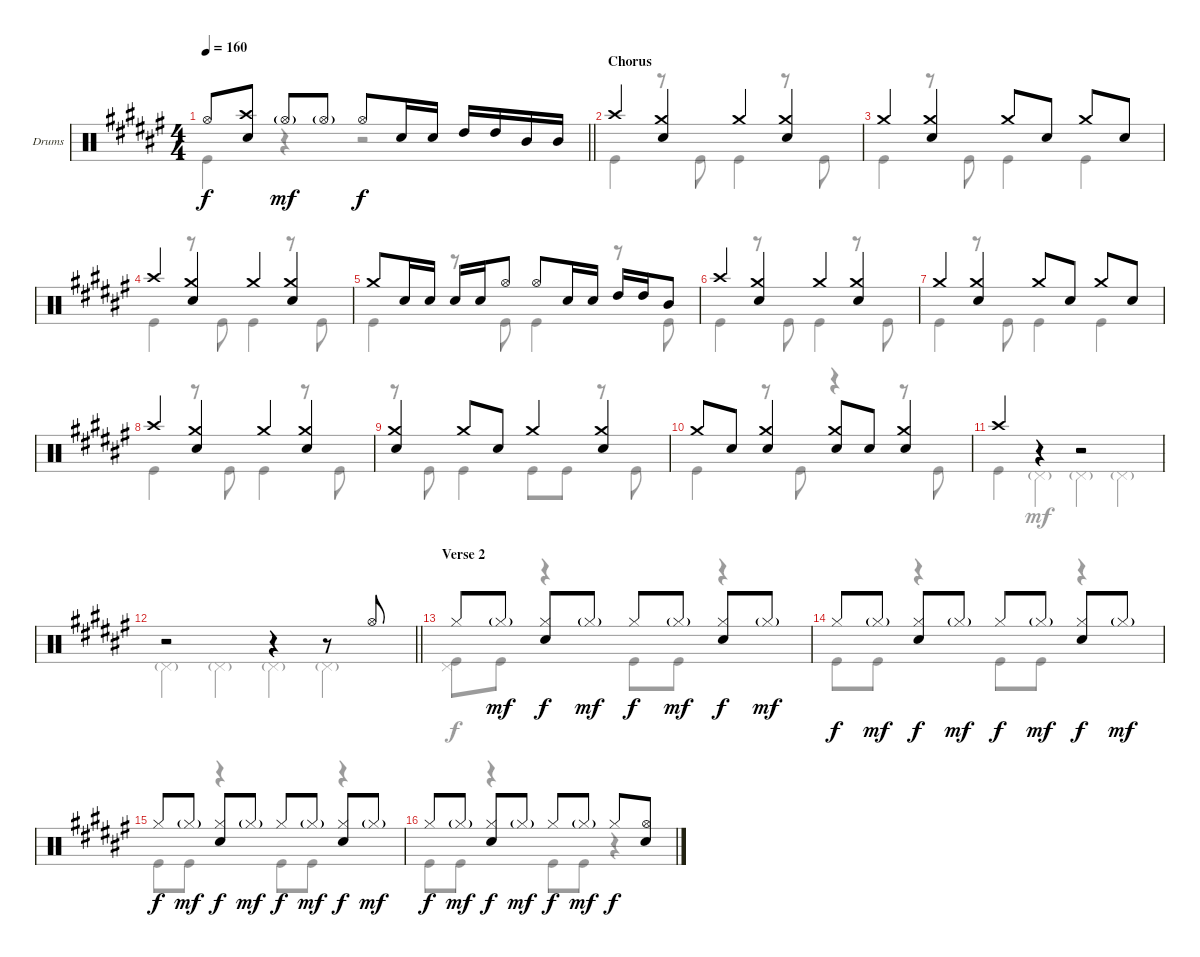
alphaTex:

\bracketExtendMode groupsimilarinstruments
\firstSystemTrackNameOrientation horizontal
\otherSystemsTrackNameOrientation horizontal
\track ("Drumkit" "Drums") {instrument percussion}
\staff {score}
\articulation defaults
\voice
\ts (4 4)
\tempo 160
\clef neutral
\barLineRight lightlight
\ks d#minor "Hi-Hat (open)".8{dy f}
("Crash high (hit)" "Snare (hit) 2").8 "Hi-Hat (open)"{g}.8{dy mf} "Hi-Hat (open)"{g}.8 "Hi-Hat (open)".8{dy f} "Snare (hit) 2".16 "Snare (hit) 2".16 "High Tom (hit)".16 "High Tom (hit)".16 "Mid Tom (hit)".16 "Mid Tom (hit)".16 |
\section ("" "Chorus")
"Crash high (hit)".4 ("Crash medium (hit)" "Snare (hit) 2").4 "Crash medium (hit)".4 ("Crash medium (hit)" "Snare (hit) 2").4 |
"Crash medium (hit)".4 ("Crash medium (hit)" "Snare (hit) 2").4 "Crash medium (hit)".8 "Snare (hit) 2".8 "Crash medium (hit)".8 "Snare (hit) 2".8 |
"Crash high (hit)".4 ("Crash medium (hit)" "Snare (hit) 2").4 "Crash medium (hit)".4 ("Crash medium (hit)" "Snare (hit) 2").4 |
"Crash medium (hit)".8 "Snare (hit) 2".16 "Snare (hit) 2".16 "Snare (hit) 2".16 "Snare (hit) 2".16 "Hi-Hat (open)".8 "Hi-Hat (open)".8 "Snare (hit) 2".16 "Snare (hit) 2".16 "High Tom (hit)".16 "High Tom (hit)".16 "Mid Tom (hit)".8 |
"Crash high (hit)".4 ("Crash medium (hit)" "Snare (hit) 2").4 "Crash medium (hit)".4 ("Crash medium (hit)" "Snare (hit) 2").4 |
"Crash medium (hit)".4 ("Crash medium (hit)" "Snare (hit) 2").4 "Crash medium (hit)".8 "Snare (hit) 2".8 "Crash medium (hit)".8 "Snare (hit) 2".8 |
"Crash high (hit)".4 ("Crash medium (hit)" "Snare (hit) 2").4 "Crash medium (hit)".4 ("Crash medium (hit)" "Snare (hit) 2").4 |
("Crash medium (hit)" "Snare (hit) 2").4 "Crash medium (hit)".8 "Snare (hit) 2".8 "Crash medium (hit)".4 ("Crash medium (hit)" "Snare (hit) 2").4 |
"Crash medium (hit)".8 "Snare (hit) 2".8 ("Crash medium (hit)" "Snare (hit) 2").4 ("Crash medium (hit)" "Snare (hit) 2").8 "Snare (hit) 2".8 ("Crash medium (hit)" "Snare (hit) 2").4 |
"Crash high (hit)".4 r.4 r.2 |
\barLineRight lightlight
r.2 r.4 r.8 "Hi-Hat (open)".8 |
\section ("" "Verse 2")
"Hi-Hat (closed)".8 "Hi-Hat (closed)"{g}.8{dy mf} ("Hi-Hat (closed)" "Snare (hit) 2").8{dy f} "Hi-Hat (closed)"{g}.8{dy mf} "Hi-Hat (closed)".8{dy f} "Hi-Hat (closed)"{g}.8{dy mf} ("Hi-Hat (closed)" "Snare (hit) 2").8{dy f} "Hi-Hat (closed)"{g}.8{dy mf} |
"Hi-Hat (closed)".8{dy f} "Hi-Hat (closed)"{g}.8{dy mf} ("Hi-Hat (closed)" "Snare (hit) 2").8{dy f} "Hi-Hat (closed)"{g}.8{dy mf} "Hi-Hat (closed)".8{dy f} "Hi-Hat (closed)"{g}.8{dy mf} ("Hi-Hat (closed)" "Snare (hit) 2").8{dy f} "Hi-Hat (closed)"{g}.8{dy mf} |
"Hi-Hat (closed)".8{dy f} "Hi-Hat (closed)"{g}.8{dy mf} ("Hi-Hat (closed)" "Snare (hit) 2").8{dy f} "Hi-Hat (closed)"{g}.8{dy mf} "Hi-Hat (closed)".8{dy f} "Hi-Hat (closed)"{g}.8{dy mf} ("Hi-Hat (closed)" "Snare (hit) 2").8{dy f} "Hi-Hat (closed)"{g}.8{dy mf} |
"Hi-Hat (closed)".8{dy f} "Hi-Hat (closed)"{g}.8{dy mf} ("Hi-Hat (closed)" "Snare (hit) 2").8{dy f} "Hi-Hat (closed)"{g}.8{dy mf} "Hi-Hat (closed)".8{dy f} "Hi-Hat (closed)"{g}.8{dy mf} "Hi-Hat (closed)".8{dy f} ("Hi-Hat (open)" "Snare (hit) 2").8
\voice
\clef neutral
\ottava regular
\simile none
\barLineRight lightlight
\ks d#minor "Kick (hit)".4{dy f}
r.4 r.2 |
"Kick (hit)".4 r.8 "Kick (hit)".8 "Kick (hit)".4 r.8 "Kick (hit)".8 |
"Kick (hit)".4 r.8 "Kick (hit)".8 "Kick (hit)".4 "Kick (hit)".4 |
"Kick (hit)".4 r.8 "Kick (hit)".8 "Kick (hit)".4 r.8 "Kick (hit)".8 |
"Kick (hit)".4 r.8 "Kick (hit)".8 "Kick (hit)".4 r.8 "Kick (hit)".8 |
"Kick (hit)".4 r.8 "Kick (hit)".8 "Kick (hit)".4 r.8 "Kick (hit)".8 |
"Kick (hit)".4 r.8 "Kick (hit)".8 "Kick (hit)".4 "Kick (hit)".4 |
"Kick (hit)".4 r.8 "Kick (hit)".8 "Kick (hit)".4 r.8 "Kick (hit)".8 |
r.8 "Kick (hit)".8 "Kick (hit)".4 "Kick (hit)".8 "Kick (hit)".8 r.8 "Kick (hit)".8 |
"Kick (hit)".4 r.8 "Kick (hit)".8 r.4 r.8 "Kick (hit)".8 |
"Kick (hit)".4 "Pedal Hi-Hat (hit)"{g}.4{dy mf} "Pedal Hi-Hat (hit)"{g}.4 "Pedal Hi-Hat (hit)"{g}.4 |
\barLineRight lightlight "Pedal Hi-Hat (hit)"{g}.4 "Pedal Hi-Hat (hit)"{g}.4 "Pedal Hi-Hat (hit)"{g}.4 "Pedal Hi-Hat (hit)"{g}.4
|
("Pedal Hi-Hat (hit)" "Kick (hit)").8{dy f} "Kick (hit)".8 r.4 "Kick (hit)".8 "Kick (hit)".8 r.4 |
"Kick (hit)".8 "Kick (hit)".8 r.4 "Kick (hit)".8 "Kick (hit)".8 r.4 |
"Kick (hit)".8 "Kick (hit)".8 r.4 "Kick (hit)".8 "Kick (hit)".8 r.4 |
"Kick (hit)".8 "Kick (hit)".8 r.4 "Kick (hit)".8 "Kick (hit)".8 r.4
